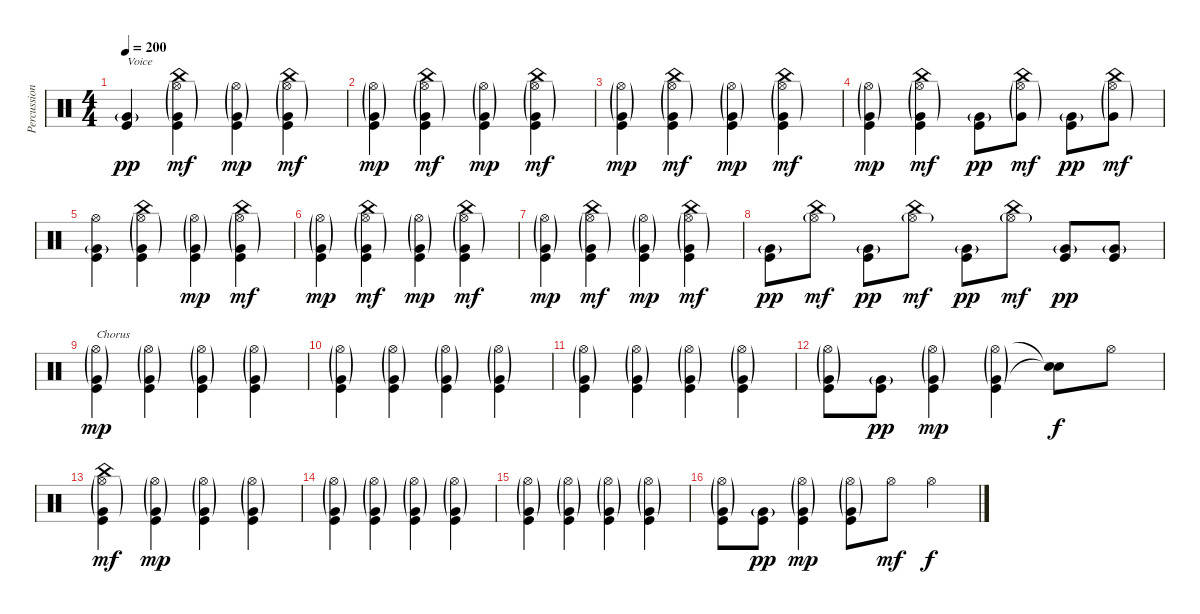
\track ("Percussion" "Percussion") {instrument percussion}
\staff {score}
\articulation defaults
\ts (4 4)
\tempo 200
\clef neutral
\ks c
("Very Low Tom (hit)"{g} "Kick (hit)").4{txt "Voice" dy pp} ("Very Low Tom (hit)"{g} "Hi-Hat (open)"{g} "China (hit)" "Kick (hit)").4{dy mf} ("Very Low Tom (hit)"{g} "Hi-Hat (open)"{g} "Kick (hit)").4{dy mp} ("Very Low Tom (hit)"{g} "Hi-Hat (open)"{g} "China (hit)" "Kick (hit)").4{dy mf} |
("Very Low Tom (hit)"{g} "Hi-Hat (open)"{g} "Kick (hit)").4{dy mp} ("Very Low Tom (hit)"{g} "Hi-Hat (open)"{g} "China (hit)" "Kick (hit)").4{dy mf} ("Very Low Tom (hit)"{g} "Hi-Hat (open)"{g} "Kick (hit)").4{dy mp} ("Very Low Tom (hit)"{g} "Hi-Hat (open)"{g} "China (hit)" "Kick (hit)").4{dy mf} |
("Very Low Tom (hit)"{g} "Hi-Hat (open)"{g} "Kick (hit)").4{dy mp} ("Very Low Tom (hit)"{g} "Hi-Hat (open)"{g} "China (hit)" "Kick (hit)").4{dy mf} ("Very Low Tom (hit)"{g} "Hi-Hat (open)"{g} "Kick (hit)").4{dy mp} ("Very Low Tom (hit)"{g} "Hi-Hat (open)"{g} "China (hit)" "Kick (hit)").4{dy mf} |
("Very Low Tom (hit)"{g} "Hi-Hat (open)"{g} "Kick (hit)").4{dy mp} ("Very Low Tom (hit)"{g} "Hi-Hat (open)"{g} "China (hit)" "Kick (hit)").4{dy mf} ("Very Low Tom (hit)"{g} "Kick (hit)").8{dy pp} ("Very Low Tom (hit)"{g} "Hi-Hat (open)"{g} "China (hit)").8{dy mf} ("Very Low Tom (hit)"{g} "Kick (hit)").8{dy pp} ("Very Low Tom (hit)"{g} "Hi-Hat (open)"{g} "China (hit)").8{dy mf} |
("Very Low Tom (hit)"{g} "Hi-Hat (open)" "Kick (hit)").4 ("Very Low Tom (hit)"{g} "Hi-Hat (open)"{g} "China (hit)" "Kick (hit)").4 ("Very Low Tom (hit)"{g} "Hi-Hat (open)"{g} "Kick (hit)").4{dy mp} ("Very Low Tom (hit)"{g} "Hi-Hat (open)"{g} "China (hit)" "Kick (hit)").4{dy mf} |
("Very Low Tom (hit)"{g} "Hi-Hat (open)"{g} "Kick (hit)").4{dy mp} ("Very Low Tom (hit)"{g} "Hi-Hat (open)"{g} "China (hit)" "Kick (hit)").4{dy mf} ("Very Low Tom (hit)"{g} "Hi-Hat (open)"{g} "Kick (hit)").4{dy mp} ("Very Low Tom (hit)"{g} "Hi-Hat (open)"{g} "China (hit)" "Kick (hit)").4{dy mf} |
("Very Low Tom (hit)"{g} "Hi-Hat (open)"{g} "Kick (hit)").4{dy mp} ("Very Low Tom (hit)"{g} "Hi-Hat (open)"{g} "China (hit)" "Kick (hit)").4{dy mf} ("Very Low Tom (hit)"{g} "Hi-Hat (open)"{g} "Kick (hit)").4{dy mp} ("Very Low Tom (hit)"{g} "Hi-Hat (open)"{g} "China (hit)" "Kick (hit)").4{dy mf} |
("Very Low Tom (hit)"{g} "Kick (hit)").8{dy pp} ("Hi-Hat (open)"{g} "China (hit)").8{dy mf} ("Very Low Tom (hit)"{g} "Kick (hit)").8{dy pp} ("Hi-Hat (open)"{g} "China (hit)").8{dy mf} ("Very Low Tom (hit)"{g} "Kick (hit)").8{dy pp} ("Hi-Hat (open)"{g} "China (hit)").8{dy mf} ("Very Low Tom (hit)"{g} "Kick (hit)").8{dy pp} ("Very Low Tom (hit)"{g} "Kick (hit)").8 |
("Very Low Tom (hit)"{g} "Hi-Hat (open)"{g} "Kick (hit)").4{txt "Chorus" dy mp} ("Very Low Tom (hit)"{g} "Hi-Hat (open)"{g} "Kick (hit)").4 ("Very Low Tom (hit)"{g} "Hi-Hat (open)"{g} "Kick (hit)").4 ("Very Low Tom (hit)"{g} "Hi-Hat (open)"{g} "Kick (hit)").4 |
("Very Low Tom (hit)"{g} "Hi-Hat (open)"{g} "Kick (hit)").4 ("Very Low Tom (hit)"{g} "Hi-Hat (open)"{g} "Kick (hit)").4 ("Very Low Tom (hit)"{g} "Hi-Hat (open)"{g} "Kick (hit)").4 ("Very Low Tom (hit)"{g} "Hi-Hat (open)"{g} "Kick (hit)").4 |
("Very Low Tom (hit)"{g} "Hi-Hat (open)"{g} "Kick (hit)").4 ("Very Low Tom (hit)"{g} "Hi-Hat (open)"{g} "Kick (hit)").4 ("Very Low Tom (hit)"{g} "Hi-Hat (open)"{g} "Kick (hit)").4 ("Very Low Tom (hit)"{g} "Hi-Hat (open)"{g} "Kick (hit)").4 |
("Very Low Tom (hit)"{g} "Hi-Hat (open)"{g} "Kick (hit)").8 ("Very Low Tom (hit)"{g} "Kick (hit)").8{dy pp} ("Very Low Tom (hit)"{g} "Hi-Hat (open)"{g} "Kick (hit)").4{dy mp} ("Very Low Tom (hit)"{g} "Hi-Hat (open)"{g} "Kick (hit)").4 ("Snare (hit)"{t} "Snare (hit)"{t}).8{dy f} "Hi-Hat (open)".8 |
("Very Low Tom (hit)"{g} "Hi-Hat (open)"{g} "China (hit)" "Kick (hit)").4{dy mf} ("Very Low Tom (hit)"{g} "Hi-Hat (open)"{g} "Kick (hit)").4{dy mp} ("Very Low Tom (hit)"{g} "Hi-Hat (open)"{g} "Kick (hit)").4 ("Very Low Tom (hit)"{g} "Hi-Hat (open)"{g} "Kick (hit)").4 |
("Very Low Tom (hit)"{g} "Hi-Hat (open)"{g} "Kick (hit)").4 ("Very Low Tom (hit)"{g} "Hi-Hat (open)"{g} "Kick (hit)").4 ("Very Low Tom (hit)"{g} "Hi-Hat (open)"{g} "Kick (hit)").4 ("Very Low Tom (hit)"{g} "Hi-Hat (open)"{g} "Kick (hit)").4 |
("Very Low Tom (hit)"{g} "Hi-Hat (open)"{g} "Kick (hit)").4 ("Very Low Tom (hit)"{g} "Hi-Hat (open)"{g} "Kick (hit)").4 ("Very Low Tom (hit)"{g} "Hi-Hat (open)"{g} "Kick (hit)").4 ("Very Low Tom (hit)"{g} "Hi-Hat (open)"{g} "Kick (hit)").4 |
("Very Low Tom (hit)"{g} "Hi-Hat (open)"{g} "Kick (hit)").8 ("Very Low Tom (hit)"{g} "Kick (hit)").8{dy pp} ("Very Low Tom (hit)"{g} "Hi-Hat (open)"{g} "Kick (hit)").4{dy mp} ("Very Low Tom (hit)"{g} "Hi-Hat (open)"{g} "Kick (hit)").8 "Hi-Hat (open)".8{dy mf} "Hi-Hat (open)".4{dy f}
